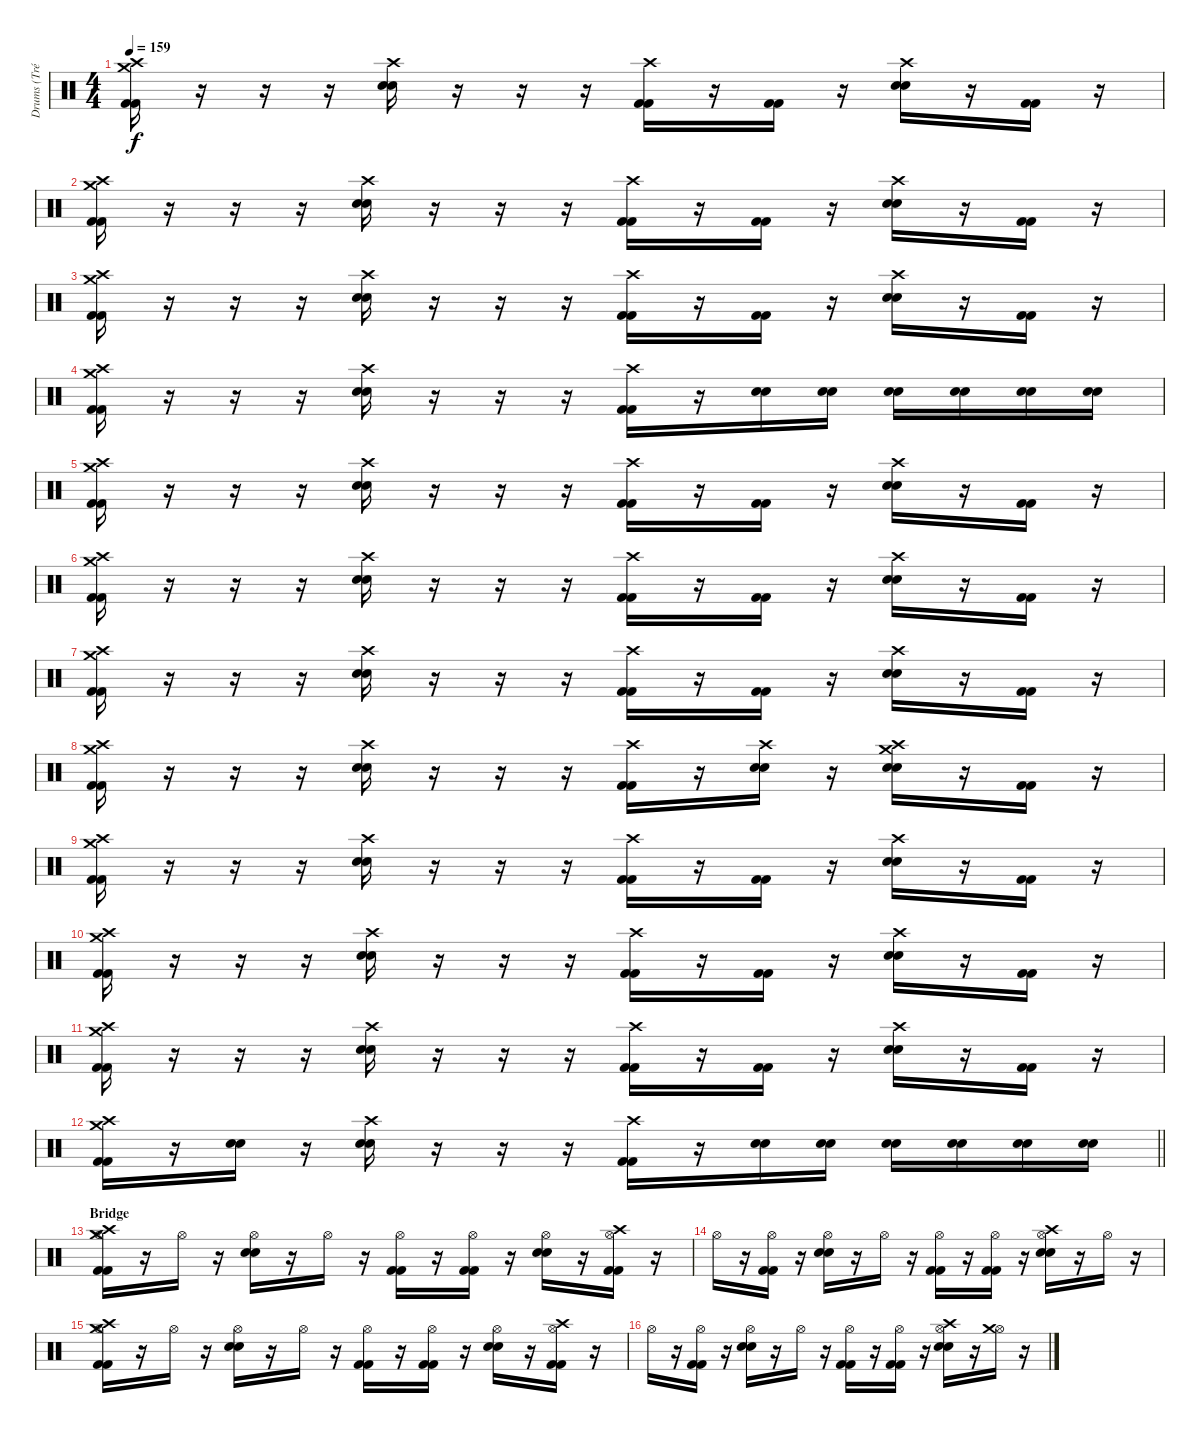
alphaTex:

\track ("Drums (Tré Cool)" "Drums (Tré") {instrument percussion}
\staff {score}
\articulation defaults
\ts (4 4)
\tempo 159
\clef neutral
\ks c
("Crash high (hit)" "Crash medium (hit)" "Kick (hit) 2" "Kick (hit) 2").16{dy f} r.16 r.16 r.16 ("Crash high (hit)" "Snare (hit) 2" "Snare (hit) 2").16 r.16 r.16 r.16 ("Crash high (hit)" "Kick (hit) 2" "Kick (hit) 2").16 r.16 ("Kick (hit) 2" "Kick (hit) 2").16 r.16 ("Crash high (hit)" "Snare (hit) 2" "Snare (hit) 2").16 r.16 ("Kick (hit) 2" "Kick (hit) 2").16 r.16 |
("Crash high (hit)" "Crash medium (hit)" "Kick (hit) 2" "Kick (hit) 2").16 r.16 r.16 r.16 ("Crash high (hit)" "Snare (hit) 2" "Snare (hit) 2").16 r.16 r.16 r.16 ("Crash high (hit)" "Kick (hit) 2" "Kick (hit) 2").16 r.16 ("Kick (hit) 2" "Kick (hit) 2").16 r.16 ("Crash high (hit)" "Snare (hit) 2" "Snare (hit) 2").16 r.16 ("Kick (hit) 2" "Kick (hit) 2").16 r.16 |
("Crash high (hit)" "Crash medium (hit)" "Kick (hit) 2" "Kick (hit) 2").16 r.16 r.16 r.16 ("Crash high (hit)" "Snare (hit) 2" "Snare (hit) 2").16 r.16 r.16 r.16 ("Crash high (hit)" "Kick (hit) 2" "Kick (hit) 2").16 r.16 ("Kick (hit) 2" "Kick (hit) 2").16 r.16 ("Crash high (hit)" "Snare (hit) 2" "Snare (hit) 2").16 r.16 ("Kick (hit) 2" "Kick (hit) 2").16 r.16 |
("Crash high (hit)" "Crash medium (hit)" "Kick (hit) 2" "Kick (hit) 2").16 r.16 r.16 r.16 ("Crash high (hit)" "Snare (hit) 2" "Snare (hit) 2").16 r.16 r.16 r.16 ("Crash high (hit)" "Kick (hit) 2" "Kick (hit) 2").16 r.16 ("Snare (hit) 2" "Snare (hit) 2").16 ("Snare (hit) 2" "Snare (hit) 2").16 ("Snare (hit) 2" "Snare (hit) 2").16 ("Snare (hit) 2" "Snare (hit) 2").16 ("Snare (hit) 2" "Snare (hit) 2").16 ("Snare (hit) 2" "Snare (hit) 2").16 |
("Crash high (hit)" "Crash medium (hit)" "Kick (hit) 2" "Kick (hit) 2").16 r.16 r.16 r.16 ("Crash high (hit)" "Snare (hit) 2" "Snare (hit) 2").16 r.16 r.16 r.16 ("Crash high (hit)" "Kick (hit) 2" "Kick (hit) 2").16 r.16 ("Kick (hit) 2" "Kick (hit) 2").16 r.16 ("Crash high (hit)" "Snare (hit) 2" "Snare (hit) 2").16 r.16 ("Kick (hit) 2" "Kick (hit) 2").16 r.16 |
("Crash high (hit)" "Crash medium (hit)" "Kick (hit) 2" "Kick (hit) 2").16 r.16 r.16 r.16 ("Crash high (hit)" "Snare (hit) 2" "Snare (hit) 2").16 r.16 r.16 r.16 ("Crash high (hit)" "Kick (hit) 2" "Kick (hit) 2").16 r.16 ("Kick (hit) 2" "Kick (hit) 2").16 r.16 ("Crash high (hit)" "Snare (hit) 2" "Snare (hit) 2").16 r.16 ("Kick (hit) 2" "Kick (hit) 2").16 r.16 |
("Crash high (hit)" "Crash medium (hit)" "Kick (hit) 2" "Kick (hit) 2").16 r.16 r.16 r.16 ("Crash high (hit)" "Snare (hit) 2" "Snare (hit) 2").16 r.16 r.16 r.16 ("Crash high (hit)" "Kick (hit) 2" "Kick (hit) 2").16 r.16 ("Kick (hit) 2" "Kick (hit) 2").16 r.16 ("Crash high (hit)" "Snare (hit) 2" "Snare (hit) 2").16 r.16 ("Kick (hit) 2" "Kick (hit) 2").16 r.16 |
("Crash high (hit)" "Crash medium (hit)" "Kick (hit) 2" "Kick (hit) 2").16 r.16 r.16 r.16 ("Crash high (hit)" "Snare (hit) 2" "Snare (hit) 2").16 r.16 r.16 r.16 ("Crash high (hit)" "Kick (hit) 2" "Kick (hit) 2").16 r.16 ("Crash high (hit)" "Snare (hit) 2" "Snare (hit) 2").16 r.16 ("Crash high (hit)" "Crash medium (hit)" "Snare (hit) 2" "Snare (hit) 2").16 r.16 ("Kick (hit) 2" "Kick (hit) 2").16 r.16 |
("Crash high (hit)" "Crash medium (hit)" "Kick (hit) 2" "Kick (hit) 2").16 r.16 r.16 r.16 ("Crash high (hit)" "Snare (hit) 2" "Snare (hit) 2").16 r.16 r.16 r.16 ("Crash high (hit)" "Kick (hit) 2" "Kick (hit) 2").16 r.16 ("Kick (hit) 2" "Kick (hit) 2").16 r.16 ("Crash high (hit)" "Snare (hit) 2" "Snare (hit) 2").16 r.16 ("Kick (hit) 2" "Kick (hit) 2").16 r.16 |
("Crash high (hit)" "Crash medium (hit)" "Kick (hit) 2" "Kick (hit) 2").16 r.16 r.16 r.16 ("Crash high (hit)" "Snare (hit) 2" "Snare (hit) 2").16 r.16 r.16 r.16 ("Crash high (hit)" "Kick (hit) 2" "Kick (hit) 2").16 r.16 ("Kick (hit) 2" "Kick (hit) 2").16 r.16 ("Crash high (hit)" "Snare (hit) 2" "Snare (hit) 2").16 r.16 ("Kick (hit) 2" "Kick (hit) 2").16 r.16 |
("Crash high (hit)" "Crash medium (hit)" "Kick (hit) 2" "Kick (hit) 2").16 r.16 r.16 r.16 ("Crash high (hit)" "Snare (hit) 2" "Snare (hit) 2").16 r.16 r.16 r.16 ("Crash high (hit)" "Kick (hit) 2" "Kick (hit) 2").16 r.16 ("Kick (hit) 2" "Kick (hit) 2").16 r.16 ("Crash high (hit)" "Snare (hit) 2" "Snare (hit) 2").16 r.16 ("Kick (hit) 2" "Kick (hit) 2").16 r.16 |
\barLineRight lightlight
("Crash high (hit)" "Crash medium (hit)" "Kick (hit) 2" "Kick (hit) 2").16 r.16 ("Snare (hit) 2" "Snare (hit) 2").16 r.16 ("Crash high (hit)" "Snare (hit) 2" "Snare (hit) 2").16 r.16 r.16 r.16 ("Crash high (hit)" "Kick (hit) 2" "Kick (hit) 2").16 r.16 ("Snare (hit) 2" "Snare (hit) 2").16 ("Snare (hit) 2" "Snare (hit) 2").16 ("Snare (hit) 2" "Snare (hit) 2").16 ("Snare (hit) 2" "Snare (hit) 2").16 ("Snare (hit) 2" "Snare (hit) 2").16 ("Snare (hit) 2" "Snare (hit) 2").16 |
\section ("" "Bridge")
("Hi-Hat (open)" "Crash high (hit)" "Crash medium (hit)" "Kick (hit) 2" "Kick (hit) 2").16 r.16 "Hi-Hat (open)".16 r.16 ("Hi-Hat (open)" "Snare (hit) 2" "Snare (hit) 2").16 r.16 "Hi-Hat (open)".16 r.16 ("Hi-Hat (open)" "Kick (hit) 2" "Kick (hit) 2").16 r.16 ("Hi-Hat (open)" "Kick (hit) 2" "Kick (hit) 2").16 r.16 ("Hi-Hat (open)" "Snare (hit) 2" "Snare (hit) 2").16 r.16 ("Hi-Hat (open)" "Crash high (hit)" "Kick (hit) 2" "Kick (hit) 2").16 r.16 |
"Hi-Hat (open)".16 r.16 ("Hi-Hat (open)" "Kick (hit) 2" "Kick (hit) 2").16 r.16 ("Hi-Hat (open)" "Snare (hit) 2" "Snare (hit) 2").16 r.16 "Hi-Hat (open)".16 r.16 ("Hi-Hat (open)" "Kick (hit) 2" "Kick (hit) 2").16 r.16 ("Hi-Hat (open)" "Kick (hit) 2" "Kick (hit) 2").16 r.16 ("Hi-Hat (open)" "Crash high (hit)" "Snare (hit) 2" "Snare (hit) 2").16 r.16 "Hi-Hat (open)".16 r.16 |
("Hi-Hat (open)" "Crash high (hit)" "Crash medium (hit)" "Kick (hit) 2" "Kick (hit) 2").16 r.16 "Hi-Hat (open)".16 r.16 ("Hi-Hat (open)" "Snare (hit) 2" "Snare (hit) 2").16 r.16 "Hi-Hat (open)".16 r.16 ("Hi-Hat (open)" "Kick (hit) 2" "Kick (hit) 2").16 r.16 ("Hi-Hat (open)" "Kick (hit) 2" "Kick (hit) 2").16 r.16 ("Hi-Hat (open)" "Snare (hit) 2" "Snare (hit) 2").16 r.16 ("Hi-Hat (open)" "Crash high (hit)" "Kick (hit) 2" "Kick (hit) 2").16 r.16 |
"Hi-Hat (open)".16 r.16 ("Hi-Hat (open)" "Kick (hit) 2" "Kick (hit) 2").16 r.16 ("Hi-Hat (open)" "Snare (hit) 2" "Snare (hit) 2").16 r.16 "Hi-Hat (open)".16 r.16 ("Hi-Hat (open)" "Kick (hit) 2" "Kick (hit) 2").16 r.16 ("Hi-Hat (open)" "Kick (hit) 2" "Kick (hit) 2").16 r.16 ("Hi-Hat (open)" "Crash high (hit)" "Snare (hit) 2" "Snare (hit) 2").16 r.16 ("Hi-Hat (open)" "Crash medium (hit)").16 r.16
